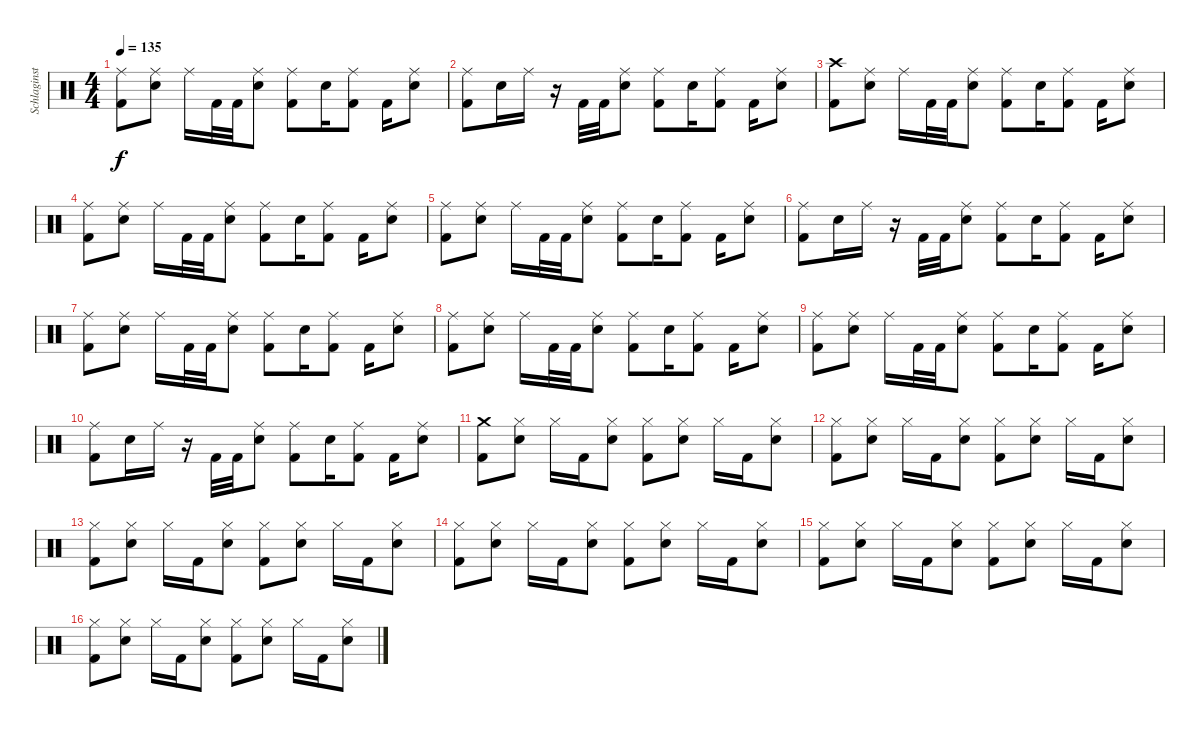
\track ("Schlaginstrumente - Auswahl" "Schlaginst") {instrument percussion}
\staff {score}
\articulation defaults
\ts (4 4)
\tempo 135
\clef neutral
\ks c
("Ride (middle)" "Kick (hit) 2").8{dy f} ("Ride (middle)" "Snare (hit) 2").8 "Ride (middle)".16 "Kick (hit) 2".32 "Kick (hit) 2".32 ("Ride (middle)" "Snare (hit) 2").8 ("Ride (middle)" "Kick (hit) 2").8 "Snare (hit) 2".16 ("Ride (middle)" "Kick (hit) 2").8 "Kick (hit) 2".16 ("Ride (middle)" "Snare (hit) 2").8 |
("Ride (middle)" "Kick (hit) 2").8 "Snare (hit) 2".16 "Ride (middle)".16 r.16 "Kick (hit) 2".32 "Kick (hit) 2".32 ("Ride (middle)" "Snare (hit) 2").8 ("Ride (middle)" "Kick (hit) 2").8 "Snare (hit) 2".16 ("Ride (middle)" "Kick (hit) 2").8 "Kick (hit) 2".16 ("Ride (middle)" "Snare (hit) 2").8 |
("Crash high (hit)" "Kick (hit) 2").8 ("Ride (middle)" "Snare (hit) 2").8 "Ride (middle)".16 "Kick (hit) 2".32 "Kick (hit) 2".32 ("Ride (middle)" "Snare (hit) 2").8 ("Ride (middle)" "Kick (hit) 2").8 "Snare (hit) 2".16 ("Ride (middle)" "Kick (hit) 2").8 "Kick (hit) 2".16 ("Ride (middle)" "Snare (hit) 2").8 |
("Ride (middle)" "Kick (hit) 2").8 ("Ride (middle)" "Snare (hit) 2").8 "Ride (middle)".16 "Kick (hit) 2".32 "Kick (hit) 2".32 ("Ride (middle)" "Snare (hit) 2").8 ("Ride (middle)" "Kick (hit) 2").8 "Snare (hit) 2".16 ("Ride (middle)" "Kick (hit) 2").8 "Kick (hit) 2".16 ("Ride (middle)" "Snare (hit) 2").8 |
("Ride (middle)" "Kick (hit) 2").8 ("Ride (middle)" "Snare (hit) 2").8 "Ride (middle)".16 "Kick (hit) 2".32 "Kick (hit) 2".32 ("Ride (middle)" "Snare (hit) 2").8 ("Ride (middle)" "Kick (hit) 2").8 "Snare (hit) 2".16 ("Ride (middle)" "Kick (hit) 2").8 "Kick (hit) 2".16 ("Ride (middle)" "Snare (hit) 2").8 |
("Ride (middle)" "Kick (hit) 2").8 "Snare (hit) 2".16 "Ride (middle)".16 r.16 "Kick (hit) 2".32 "Kick (hit) 2".32 ("Ride (middle)" "Snare (hit) 2").8 ("Ride (middle)" "Kick (hit) 2").8 "Snare (hit) 2".16 ("Ride (middle)" "Kick (hit) 2").8 "Kick (hit) 2".16 ("Ride (middle)" "Snare (hit) 2").8 |
("Ride (middle)" "Kick (hit) 2").8 ("Ride (middle)" "Snare (hit) 2").8 "Ride (middle)".16 "Kick (hit) 2".32 "Kick (hit) 2".32 ("Ride (middle)" "Snare (hit) 2").8 ("Ride (middle)" "Kick (hit) 2").8 "Snare (hit) 2".16 ("Ride (middle)" "Kick (hit) 2").8 "Kick (hit) 2".16 ("Ride (middle)" "Snare (hit) 2").8 |
("Ride (middle)" "Kick (hit) 2").8 ("Ride (middle)" "Snare (hit) 2").8 "Ride (middle)".16 "Kick (hit) 2".32 "Kick (hit) 2".32 ("Ride (middle)" "Snare (hit) 2").8 ("Ride (middle)" "Kick (hit) 2").8 "Snare (hit) 2".16 ("Ride (middle)" "Kick (hit) 2").8 "Kick (hit) 2".16 ("Ride (middle)" "Snare (hit) 2").8 |
("Ride (middle)" "Kick (hit) 2").8 ("Ride (middle)" "Snare (hit) 2").8 "Ride (middle)".16 "Kick (hit) 2".32 "Kick (hit) 2".32 ("Ride (middle)" "Snare (hit) 2").8 ("Ride (middle)" "Kick (hit) 2").8 "Snare (hit) 2".16 ("Ride (middle)" "Kick (hit) 2").8 "Kick (hit) 2".16 ("Ride (middle)" "Snare (hit) 2").8 |
("Ride (middle)" "Kick (hit) 2").8 "Snare (hit) 2".16 "Ride (middle)".16 r.16 "Kick (hit) 2".32 "Kick (hit) 2".32 ("Ride (middle)" "Snare (hit) 2").8 ("Ride (middle)" "Kick (hit) 2").8 "Snare (hit) 2".16 ("Ride (middle)" "Kick (hit) 2").8 "Kick (hit) 2".16 ("Ride (middle)" "Snare (hit) 2").8 |
("Crash medium (hit)" "Kick (hit) 2").8 ("Hi-Hat (closed)" "Snare (hit) 2").8 "Hi-Hat (closed)".16 "Kick (hit) 2".16 ("Hi-Hat (closed)" "Snare (hit) 2").8 ("Hi-Hat (closed)" "Kick (hit) 2").8 ("Hi-Hat (closed)" "Snare (hit) 2").8 "Hi-Hat (closed)".16 "Kick (hit) 2".16 ("Hi-Hat (closed)" "Snare (hit) 2").8 |
("Hi-Hat (closed)" "Kick (hit) 2").8 ("Hi-Hat (closed)" "Snare (hit) 2").8 "Hi-Hat (closed)".16 "Kick (hit) 2".16 ("Hi-Hat (closed)" "Snare (hit) 2").8 ("Hi-Hat (closed)" "Kick (hit) 2").8 ("Hi-Hat (closed)" "Snare (hit) 2").8 "Hi-Hat (closed)".16 "Kick (hit) 2".16 ("Hi-Hat (closed)" "Snare (hit) 2").8 |
("Hi-Hat (closed)" "Kick (hit) 2").8 ("Hi-Hat (closed)" "Snare (hit) 2").8 "Hi-Hat (closed)".16 "Kick (hit) 2".16 ("Hi-Hat (closed)" "Snare (hit) 2").8 ("Hi-Hat (closed)" "Kick (hit) 2").8 ("Hi-Hat (closed)" "Snare (hit) 2").8 "Hi-Hat (closed)".16 "Kick (hit) 2".16 ("Hi-Hat (closed)" "Snare (hit) 2").8 |
("Hi-Hat (closed)" "Kick (hit) 2").8 ("Hi-Hat (closed)" "Snare (hit) 2").8 "Hi-Hat (closed)".16 "Kick (hit) 2".16 ("Hi-Hat (closed)" "Snare (hit) 2").8 ("Hi-Hat (closed)" "Kick (hit) 2").8 ("Hi-Hat (closed)" "Snare (hit) 2").8 "Hi-Hat (closed)".16 "Kick (hit) 2".16 ("Hi-Hat (closed)" "Snare (hit) 2").8 |
("Hi-Hat (closed)" "Kick (hit) 2").8 ("Hi-Hat (closed)" "Snare (hit) 2").8 "Hi-Hat (closed)".16 "Kick (hit) 2".16 ("Hi-Hat (closed)" "Snare (hit) 2").8 ("Hi-Hat (closed)" "Kick (hit) 2").8 ("Hi-Hat (closed)" "Snare (hit) 2").8 "Hi-Hat (closed)".16 "Kick (hit) 2".16 ("Hi-Hat (closed)" "Snare (hit) 2").8 |
("Hi-Hat (closed)" "Kick (hit) 2").8 ("Hi-Hat (closed)" "Snare (hit) 2").8 "Hi-Hat (closed)".16 "Kick (hit) 2".16 ("Hi-Hat (closed)" "Snare (hit) 2").8 ("Hi-Hat (closed)" "Kick (hit) 2").8 ("Hi-Hat (closed)" "Snare (hit) 2").8 "Hi-Hat (closed)".16 "Kick (hit) 2".16 ("Hi-Hat (closed)" "Snare (hit) 2").8
